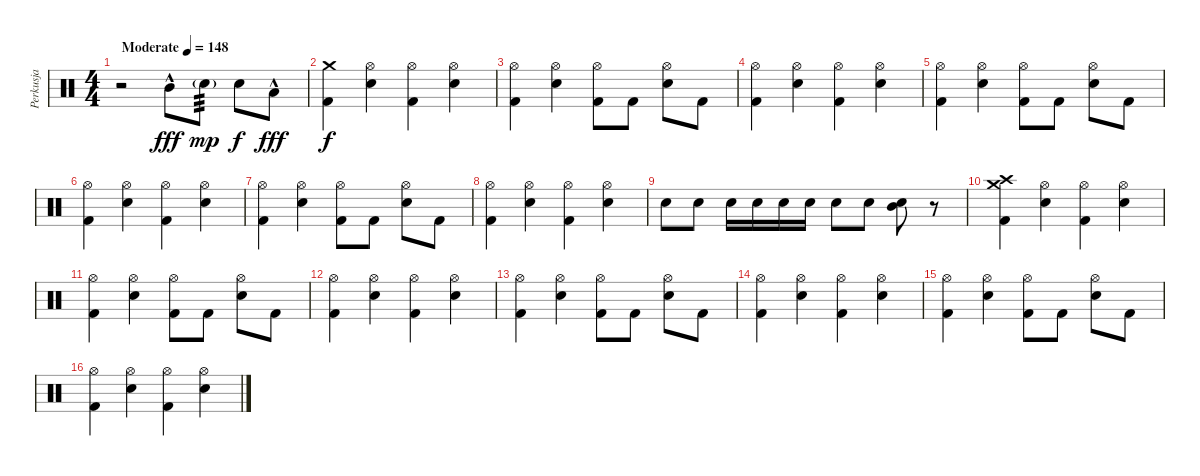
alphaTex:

\track ("Perkusja" "Perkusja") {instrument percussion}
\staff {score}
\articulation defaults
\ts (4 4)
\tempo (148 "Moderate")
\clef neutral
\ks c
r.2{dy fff} "Mid Tom (hit)"{hac}.8 "Snare (hit) 2"{g}.8{tp 3 dy mp} "Snare (hit) 2".8{dy f} "Low Tom (hit)"{hac}.8{dy fff} |
("Crash medium (hit)" "Kick (hit) 2").4{dy f} ("Hi-Hat (open)" "Snare (hit) 2").4 ("Hi-Hat (open)" "Kick (hit) 2").4 ("Hi-Hat (open)" "Snare (hit) 2").4 |
("Hi-Hat (open)" "Kick (hit) 2").4 ("Hi-Hat (open)" "Snare (hit) 2").4 ("Hi-Hat (open)" "Kick (hit) 2").8 "Kick (hit) 2".8 ("Hi-Hat (open)" "Snare (hit) 2").8 "Kick (hit) 2".8 |
("Hi-Hat (open)" "Kick (hit) 2").4 ("Hi-Hat (open)" "Snare (hit) 2").4 ("Hi-Hat (open)" "Kick (hit) 2").4 ("Hi-Hat (open)" "Snare (hit) 2").4 |
("Hi-Hat (open)" "Kick (hit) 2").4 ("Hi-Hat (open)" "Snare (hit) 2").4 ("Hi-Hat (open)" "Kick (hit) 2").8 "Kick (hit) 2".8 ("Hi-Hat (open)" "Snare (hit) 2").8 "Kick (hit) 2".8 |
("Hi-Hat (open)" "Kick (hit) 2").4 ("Hi-Hat (open)" "Snare (hit) 2").4 ("Hi-Hat (open)" "Kick (hit) 2").4 ("Hi-Hat (open)" "Snare (hit) 2").4 |
("Hi-Hat (open)" "Kick (hit) 2").4 ("Hi-Hat (open)" "Snare (hit) 2").4 ("Hi-Hat (open)" "Kick (hit) 2").8 "Kick (hit) 2".8 ("Hi-Hat (open)" "Snare (hit) 2").8 "Kick (hit) 2".8 |
("Hi-Hat (open)" "Kick (hit) 2").4 ("Hi-Hat (open)" "Snare (hit) 2").4 ("Hi-Hat (open)" "Kick (hit) 2").4 ("Hi-Hat (open)" "Snare (hit) 2").4 |
"Snare (hit) 2".8 "Snare (hit) 2".8 "Snare (hit) 2".16 "Snare (hit) 2".16 "Snare (hit) 2".16 "Snare (hit) 2".16 "Snare (hit) 2".8 "Snare (hit) 2".8 ("Mid Tom (hit)" "Snare (hit) 2").8 r.8 |
("Crash high (hit)" "Crash medium (hit)" "Kick (hit) 2").4 ("Hi-Hat (open)" "Snare (hit) 2").4 ("Hi-Hat (open)" "Kick (hit) 2").4 ("Hi-Hat (open)" "Snare (hit) 2").4 |
("Hi-Hat (open)" "Kick (hit) 2").4 ("Hi-Hat (open)" "Snare (hit) 2").4 ("Hi-Hat (open)" "Kick (hit) 2").8 "Kick (hit) 2".8 ("Hi-Hat (open)" "Snare (hit) 2").8 "Kick (hit) 2".8 |
("Hi-Hat (open)" "Kick (hit) 2").4 ("Hi-Hat (open)" "Snare (hit) 2").4 ("Hi-Hat (open)" "Kick (hit) 2").4 ("Hi-Hat (open)" "Snare (hit) 2").4 |
("Hi-Hat (open)" "Kick (hit) 2").4 ("Hi-Hat (open)" "Snare (hit) 2").4 ("Hi-Hat (open)" "Kick (hit) 2").8 "Kick (hit) 2".8 ("Hi-Hat (open)" "Snare (hit) 2").8 "Kick (hit) 2".8 |
("Hi-Hat (open)" "Kick (hit) 2").4 ("Hi-Hat (open)" "Snare (hit) 2").4 ("Hi-Hat (open)" "Kick (hit) 2").4 ("Hi-Hat (open)" "Snare (hit) 2").4 |
("Hi-Hat (open)" "Kick (hit) 2").4 ("Hi-Hat (open)" "Snare (hit) 2").4 ("Hi-Hat (open)" "Kick (hit) 2").8 "Kick (hit) 2".8 ("Hi-Hat (open)" "Snare (hit) 2").8 "Kick (hit) 2".8 |
("Hi-Hat (open)" "Kick (hit) 2").4 ("Hi-Hat (open)" "Snare (hit) 2").4 ("Hi-Hat (open)" "Kick (hit) 2").4 ("Hi-Hat (open)" "Snare (hit) 2").4
